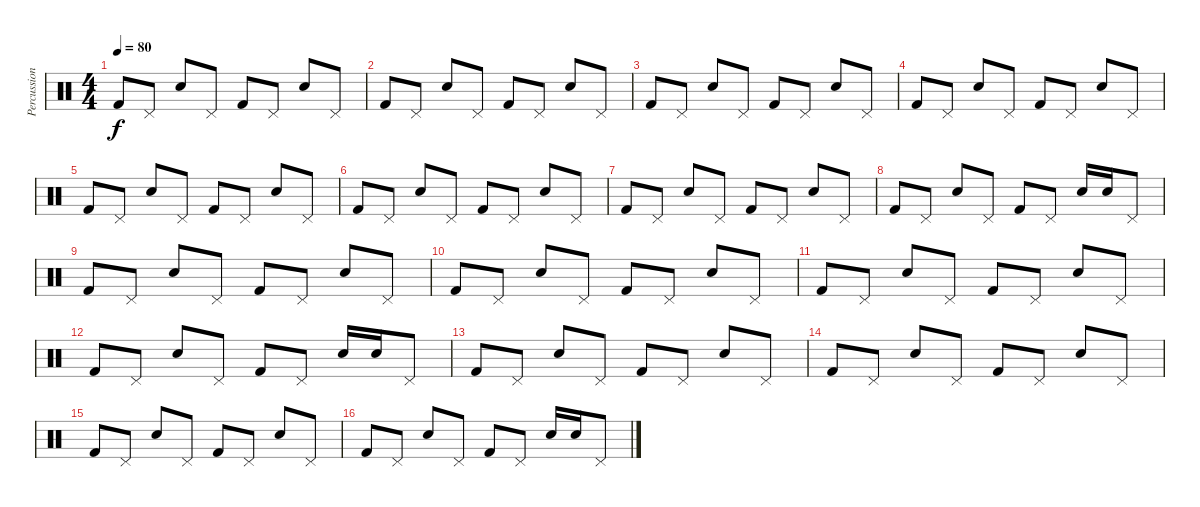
\track ("Percussion" "Percussion") {instrument percussion}
\staff {score}
\articulation defaults
\ts (4 4)
\tempo 80
\clef neutral
\ks c "Kick (hit) 2".8{dy f} "Pedal Hi-Hat (hit)".8 "Electric Snare (hit)".8 "Pedal Hi-Hat (hit)".8 "Kick (hit) 2".8 "Pedal Hi-Hat (hit)".8 "Electric Snare (hit)".8 "Pedal Hi-Hat (hit)".8
|
"Kick (hit) 2".8 "Pedal Hi-Hat (hit)".8 "Electric Snare (hit)".8 "Pedal Hi-Hat (hit)".8 "Kick (hit) 2".8 "Pedal Hi-Hat (hit)".8 "Electric Snare (hit)".8 "Pedal Hi-Hat (hit)".8 |
"Kick (hit) 2".8 "Pedal Hi-Hat (hit)".8 "Electric Snare (hit)".8 "Pedal Hi-Hat (hit)".8 "Kick (hit) 2".8 "Pedal Hi-Hat (hit)".8 "Electric Snare (hit)".8 "Pedal Hi-Hat (hit)".8 |
"Kick (hit) 2".8 "Pedal Hi-Hat (hit)".8 "Electric Snare (hit)".8 "Pedal Hi-Hat (hit)".8 "Kick (hit) 2".8 "Pedal Hi-Hat (hit)".8 "Electric Snare (hit)".8 "Pedal Hi-Hat (hit)".8 |
"Kick (hit) 2".8 "Pedal Hi-Hat (hit)".8 "Electric Snare (hit)".8 "Pedal Hi-Hat (hit)".8 "Kick (hit) 2".8 "Pedal Hi-Hat (hit)".8 "Electric Snare (hit)".8 "Pedal Hi-Hat (hit)".8 |
"Kick (hit) 2".8 "Pedal Hi-Hat (hit)".8 "Electric Snare (hit)".8 "Pedal Hi-Hat (hit)".8 "Kick (hit) 2".8 "Pedal Hi-Hat (hit)".8 "Electric Snare (hit)".8 "Pedal Hi-Hat (hit)".8 |
"Kick (hit) 2".8 "Pedal Hi-Hat (hit)".8 "Electric Snare (hit)".8 "Pedal Hi-Hat (hit)".8 "Kick (hit) 2".8 "Pedal Hi-Hat (hit)".8 "Electric Snare (hit)".8 "Pedal Hi-Hat (hit)".8 |
"Kick (hit) 2".8 "Pedal Hi-Hat (hit)".8 "Electric Snare (hit)".8 "Pedal Hi-Hat (hit)".8 "Kick (hit) 2".8 "Pedal Hi-Hat (hit)".8 "Electric Snare (hit)".16 "Electric Snare (hit)".16 "Pedal Hi-Hat (hit)".8 |
"Kick (hit) 2".8 "Pedal Hi-Hat (hit)".8 "Electric Snare (hit)".8 "Pedal Hi-Hat (hit)".8 "Kick (hit) 2".8 "Pedal Hi-Hat (hit)".8 "Electric Snare (hit)".8 "Pedal Hi-Hat (hit)".8 |
"Kick (hit) 2".8 "Pedal Hi-Hat (hit)".8 "Electric Snare (hit)".8 "Pedal Hi-Hat (hit)".8 "Kick (hit) 2".8 "Pedal Hi-Hat (hit)".8 "Electric Snare (hit)".8 "Pedal Hi-Hat (hit)".8 |
"Kick (hit) 2".8 "Pedal Hi-Hat (hit)".8 "Electric Snare (hit)".8 "Pedal Hi-Hat (hit)".8 "Kick (hit) 2".8 "Pedal Hi-Hat (hit)".8 "Electric Snare (hit)".8 "Pedal Hi-Hat (hit)".8 |
"Kick (hit) 2".8 "Pedal Hi-Hat (hit)".8 "Electric Snare (hit)".8 "Pedal Hi-Hat (hit)".8 "Kick (hit) 2".8 "Pedal Hi-Hat (hit)".8 "Electric Snare (hit)".16 "Electric Snare (hit)".16 "Pedal Hi-Hat (hit)".8 |
"Kick (hit) 2".8 "Pedal Hi-Hat (hit)".8 "Electric Snare (hit)".8 "Pedal Hi-Hat (hit)".8 "Kick (hit) 2".8 "Pedal Hi-Hat (hit)".8 "Electric Snare (hit)".8 "Pedal Hi-Hat (hit)".8 |
"Kick (hit) 2".8 "Pedal Hi-Hat (hit)".8 "Electric Snare (hit)".8 "Pedal Hi-Hat (hit)".8 "Kick (hit) 2".8 "Pedal Hi-Hat (hit)".8 "Electric Snare (hit)".8 "Pedal Hi-Hat (hit)".8 |
"Kick (hit) 2".8 "Pedal Hi-Hat (hit)".8 "Electric Snare (hit)".8 "Pedal Hi-Hat (hit)".8 "Kick (hit) 2".8 "Pedal Hi-Hat (hit)".8 "Electric Snare (hit)".8 "Pedal Hi-Hat (hit)".8 |
"Kick (hit) 2".8 "Pedal Hi-Hat (hit)".8 "Electric Snare (hit)".8 "Pedal Hi-Hat (hit)".8 "Kick (hit) 2".8 "Pedal Hi-Hat (hit)".8 "Electric Snare (hit)".16 "Electric Snare (hit)".16 "Pedal Hi-Hat (hit)".8
